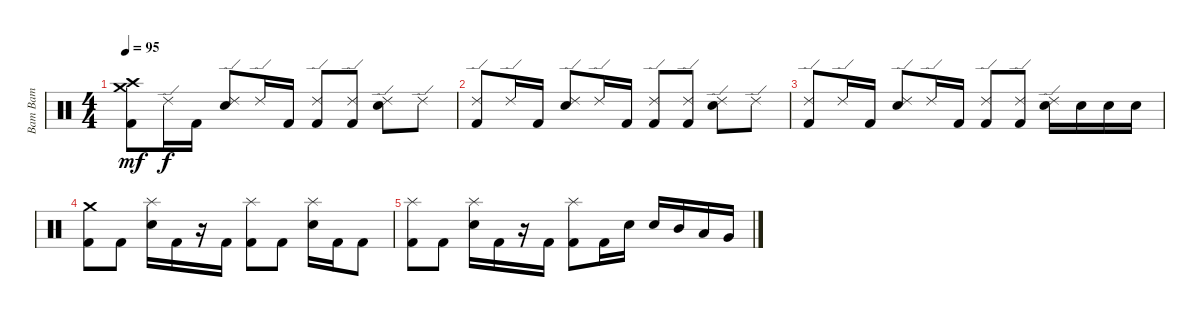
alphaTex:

\track ("Bam Bam" "Bam Bam") {instrument percussion}
\staff {score}
\articulation defaults
\ts (4 4)
\tempo 95
\clef neutral
\ks c
("Crash medium (hit)" "Crash high (hit)" "Kick (hit) 2").8{dy mf} "Ride (edge) 2".16{dy f} "Kick (hit) 2".16 ("Ride (edge) 2" "Electric Snare (hit)").8 "Ride (edge) 2".16 "Kick (hit) 2".16 ("Ride (edge) 2" "Kick (hit) 2").8 ("Ride (edge) 2" "Kick (hit) 2").8 ("Ride (edge) 2" "Electric Snare (hit)").8 "Ride (edge) 2".8 |
("Ride (edge) 2" "Kick (hit) 2").8 "Ride (edge) 2".16 "Kick (hit) 2".16 ("Ride (edge) 2" "Electric Snare (hit)").8 "Ride (edge) 2".16 "Kick (hit) 2".16 ("Ride (edge) 2" "Kick (hit) 2").8 ("Ride (edge) 2" "Kick (hit) 2").8 ("Ride (edge) 2" "Electric Snare (hit)").8 "Ride (edge) 2".8 |
("Ride (edge) 2" "Kick (hit) 2").8 "Ride (edge) 2".16 "Kick (hit) 2".16 ("Ride (edge) 2" "Electric Snare (hit)").8 "Ride (edge) 2".16 "Kick (hit) 2".16 ("Ride (edge) 2" "Kick (hit) 2").8 ("Ride (edge) 2" "Kick (hit) 2").8 ("Ride (edge) 2" "Electric Snare (hit)").16 "Electric Snare (hit)".16 "Electric Snare (hit)".16 "Electric Snare (hit)".16 |
("Crash medium (hit)" "Kick (hit) 2").8 "Kick (hit) 2".8 ("Splash (hit)" "Electric Snare (hit)").16 "Kick (hit) 2".16 r.16 "Kick (hit) 2".16 ("Splash (hit)" "Kick (hit) 2").8 "Kick (hit) 2".8 ("Splash (hit)" "Electric Snare (hit)").16 "Kick (hit) 2".16 "Kick (hit) 2".8 |
("Splash (hit)" "Kick (hit) 2").8 "Kick (hit) 2".8 ("Splash (hit)" "Electric Snare (hit)").16 "Kick (hit) 2".16 r.16 "Kick (hit) 2".16 ("Splash (hit)" "Kick (hit) 2").8 "Kick (hit) 2".16 "Electric Snare (hit)".16 "Electric Snare (hit)".16 "Mid Tom (hit)".16 "Low Tom (hit)".16 "Very Low Tom (hit)".16
